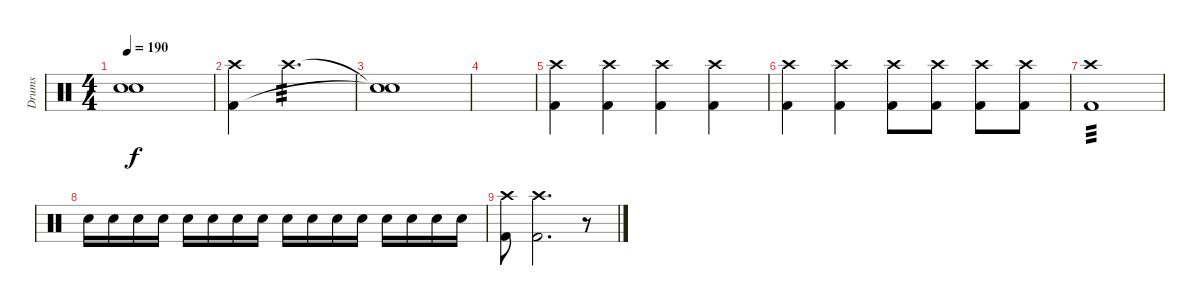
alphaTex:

\track ("Drums" "Drums") {instrument percussion}
\staff {score}
\articulation defaults
\ts (4 4)
\tempo 190
\clef neutral
\ks c
("Snare (hit)"{t} "Snare (hit)"{t}).1{dy f} |
("Crash high (hit)" "Kick (hit) 2").4 "Crash high (hit)".2{d tp 3} |
("Snare (hit)"{t} "Snare (hit)"{t}).1 |
|
("Crash high (hit)" "Kick (hit) 2").4 ("Crash high (hit)" "Kick (hit) 2").4 ("Crash high (hit)" "Kick (hit) 2").4 ("Crash high (hit)" "Kick (hit) 2").4 |
("Crash high (hit)" "Kick (hit) 2").4 ("Crash high (hit)" "Kick (hit) 2").4 ("Crash high (hit)" "Kick (hit) 2").8 ("Crash high (hit)" "Kick (hit) 2").8 ("Crash high (hit)" "Kick (hit) 2").8 ("Crash high (hit)" "Kick (hit) 2").8 |
("Crash high (hit)" "Kick (hit) 2").1{tp 3} |
"Snare (hit) 2".16 "Snare (hit) 2".16 "Snare (hit) 2".16 "Snare (hit) 2".16 "Snare (hit) 2".16 "Snare (hit) 2".16 "Snare (hit) 2".16 "Snare (hit) 2".16 "Snare (hit) 2".16 "Snare (hit) 2".16 "Snare (hit) 2".16 "Snare (hit) 2".16 "Snare (hit) 2".16 "Snare (hit) 2".16 "Snare (hit) 2".16 "Snare (hit) 2".16 |
("Crash high (hit)" "Kick (hit) 2").8 ("Crash high (hit)" "Kick (hit) 2").2{d} r.8
